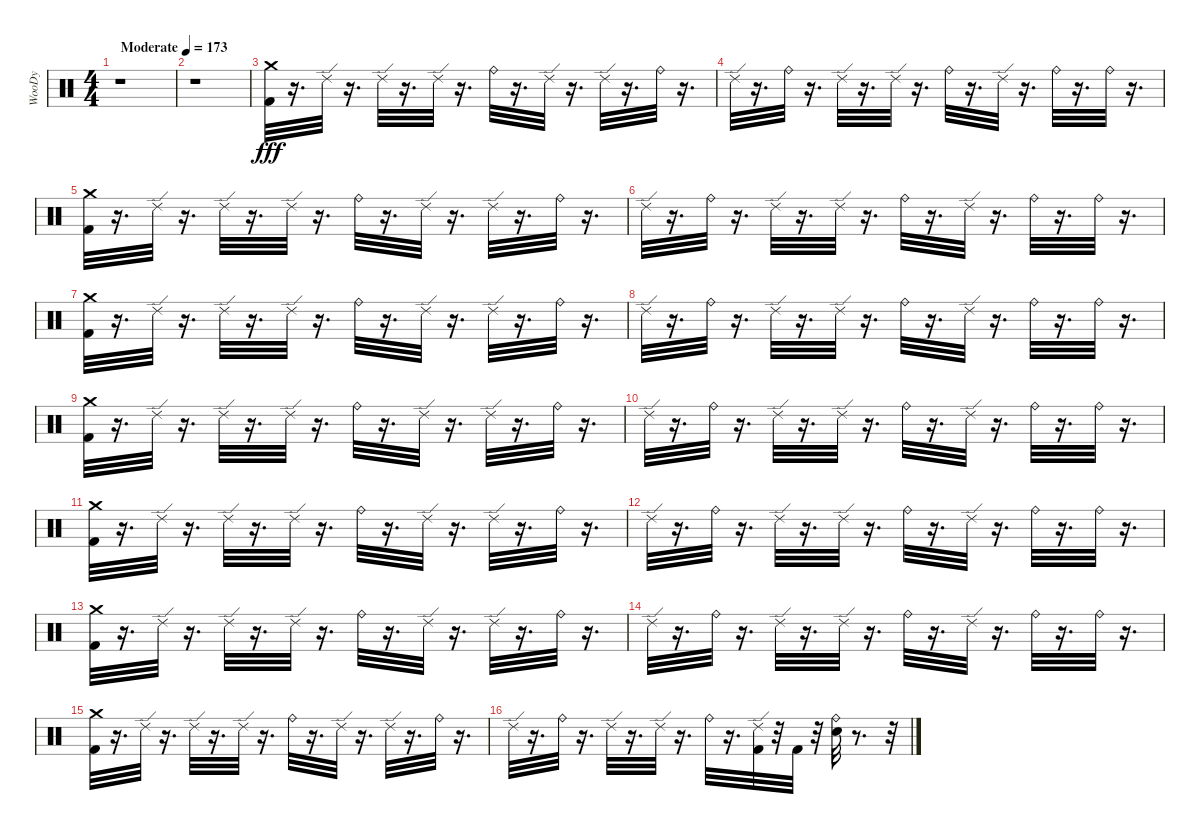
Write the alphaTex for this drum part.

\track ("WooDy" "WooDy") {instrument percussion}
\staff {score}
\articulation defaults
\ts (4 4)
\tempo (173 "Moderate")
\clef neutral
\ks c
r.1{dy fff} |
r.1 |
("Kick (hit) 2" "Crash medium (hit)").32 r.16{d} "Ride (edge) 2".32 r.16{d} "Ride (edge) 2".32 r.16{d} "Ride (edge) 2".32 r.16{d} "Ride (bell)".32 r.16{d} "Ride (edge) 2".32 r.16{d} "Ride (edge) 2".32 r.16{d} "Ride (bell)".32 r.16{d} |
"Ride (edge) 2".32 r.16{d} "Ride (bell)".32 r.16{d} "Ride (edge) 2".32 r.16{d} "Ride (edge) 2".32 r.16{d} "Ride (bell)".32 r.16{d} "Ride (edge) 2".32 r.16{d} "Ride (bell)".32 r.16{d} "Ride (bell)".32 r.16{d} |
("Kick (hit) 2" "Crash medium (hit)").32 r.16{d} "Ride (edge) 2".32 r.16{d} "Ride (edge) 2".32 r.16{d} "Ride (edge) 2".32 r.16{d} "Ride (bell)".32 r.16{d} "Ride (edge) 2".32 r.16{d} "Ride (edge) 2".32 r.16{d} "Ride (bell)".32 r.16{d} |
"Ride (edge) 2".32 r.16{d} "Ride (bell)".32 r.16{d} "Ride (edge) 2".32 r.16{d} "Ride (edge) 2".32 r.16{d} "Ride (bell)".32 r.16{d} "Ride (edge) 2".32 r.16{d} "Ride (bell)".32 r.16{d} "Ride (bell)".32 r.16{d} |
("Kick (hit) 2" "Crash medium (hit)").32 r.16{d} "Ride (edge) 2".32 r.16{d} "Ride (edge) 2".32 r.16{d} "Ride (edge) 2".32 r.16{d} "Ride (bell)".32 r.16{d} "Ride (edge) 2".32 r.16{d} "Ride (edge) 2".32 r.16{d} "Ride (bell)".32 r.16{d} |
"Ride (edge) 2".32 r.16{d} "Ride (bell)".32 r.16{d} "Ride (edge) 2".32 r.16{d} "Ride (edge) 2".32 r.16{d} "Ride (bell)".32 r.16{d} "Ride (edge) 2".32 r.16{d} "Ride (bell)".32 r.16{d} "Ride (bell)".32 r.16{d} |
("Kick (hit) 2" "Crash medium (hit)").32 r.16{d} "Ride (edge) 2".32 r.16{d} "Ride (edge) 2".32 r.16{d} "Ride (edge) 2".32 r.16{d} "Ride (bell)".32 r.16{d} "Ride (edge) 2".32 r.16{d} "Ride (edge) 2".32 r.16{d} "Ride (bell)".32 r.16{d} |
"Ride (edge) 2".32 r.16{d} "Ride (bell)".32 r.16{d} "Ride (edge) 2".32 r.16{d} "Ride (edge) 2".32 r.16{d} "Ride (bell)".32 r.16{d} "Ride (edge) 2".32 r.16{d} "Ride (bell)".32 r.16{d} "Ride (bell)".32 r.16{d} |
("Kick (hit) 2" "Crash medium (hit)").32 r.16{d} "Ride (edge) 2".32 r.16{d} "Ride (edge) 2".32 r.16{d} "Ride (edge) 2".32 r.16{d} "Ride (bell)".32 r.16{d} "Ride (edge) 2".32 r.16{d} "Ride (edge) 2".32 r.16{d} "Ride (bell)".32 r.16{d} |
"Ride (edge) 2".32 r.16{d} "Ride (bell)".32 r.16{d} "Ride (edge) 2".32 r.16{d} "Ride (edge) 2".32 r.16{d} "Ride (bell)".32 r.16{d} "Ride (edge) 2".32 r.16{d} "Ride (bell)".32 r.16{d} "Ride (bell)".32 r.16{d} |
("Kick (hit) 2" "Crash medium (hit)").32 r.16{d} "Ride (edge) 2".32 r.16{d} "Ride (edge) 2".32 r.16{d} "Ride (edge) 2".32 r.16{d} "Ride (bell)".32 r.16{d} "Ride (edge) 2".32 r.16{d} "Ride (edge) 2".32 r.16{d} "Ride (bell)".32 r.16{d} |
"Ride (edge) 2".32 r.16{d} "Ride (bell)".32 r.16{d} "Ride (edge) 2".32 r.16{d} "Ride (edge) 2".32 r.16{d} "Ride (bell)".32 r.16{d} "Ride (edge) 2".32 r.16{d} "Ride (bell)".32 r.16{d} "Ride (bell)".32 r.16{d} |
("Kick (hit) 2" "Crash medium (hit)").32 r.16{d} "Ride (edge) 2".32 r.16{d} "Ride (edge) 2".32 r.16{d} "Ride (edge) 2".32 r.16{d} "Ride (bell)".32 r.16{d} "Ride (edge) 2".32 r.16{d} "Ride (edge) 2".32 r.16{d} "Ride (bell)".32 r.16{d} |
"Ride (edge) 2".32 r.16{d} "Ride (bell)".32 r.16{d} "Ride (edge) 2".32 r.16{d} "Ride (edge) 2".32 r.16{d} "Ride (bell)".32 r.16{d} ("Kick (hit) 2" "Ride (edge) 2").32 r.32 "Kick (hit) 2".32 r.32 ("Electric Snare (hit)" "Ride (bell)").32 r.8{d} r.32
